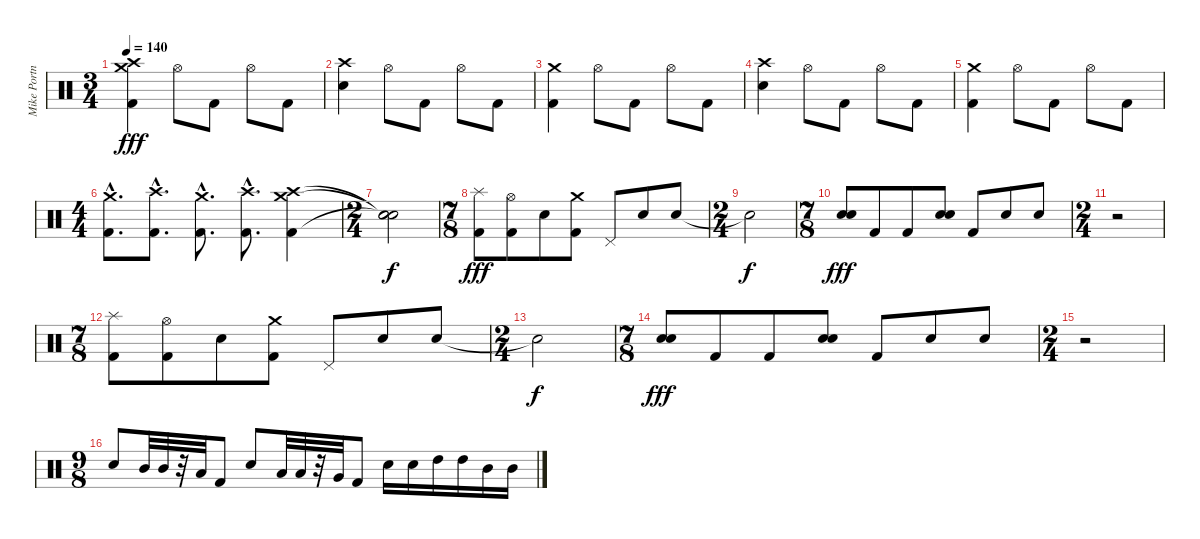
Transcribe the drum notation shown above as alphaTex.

\track ("Mike Portnoy" "Mike Portn") {instrument percussion}
\staff {score}
\articulation defaults
\ts (3 4)
\tempo 140
\clef neutral
\ks c
("Crash medium (hit)" "Crash high (hit)" "Kick (hit) 2").4{dy fff} "Hi-Hat (open)".8 "Kick (hit) 2".8 "Hi-Hat (open)".8 "Kick (hit) 2".8 |
("Crash high (hit)" "Snare (hit) 2").4 "Hi-Hat (open)".8 "Kick (hit) 2".8 "Hi-Hat (open)".8 "Kick (hit) 2".8 |
("Crash medium (hit)" "Kick (hit) 2").4 "Hi-Hat (open)".8 "Kick (hit) 2".8 "Hi-Hat (open)".8 "Kick (hit) 2".8 |
("Crash high (hit)" "Snare (hit) 2").4 "Hi-Hat (open)".8 "Kick (hit) 2".8 "Hi-Hat (open)".8 "Kick (hit) 2".8 |
("Crash medium (hit)" "Kick (hit) 2").4 "Hi-Hat (open)".8 "Kick (hit) 2".8 "Hi-Hat (open)".8 "Kick (hit) 2".8 |
\ts (4 4)
("Crash medium (hit)"{hac} "Kick (hit) 2"{hac}).8{d} ("Crash high (hit)"{hac} "Kick (hit) 2"{hac}).8{d} ("Crash medium (hit)"{hac} "Kick (hit) 2"{hac}).8{d} ("Crash high (hit)"{hac} "Kick (hit) 2"{hac}).8{d} ("Crash high (hit)" "Crash medium (hit)" "Kick (hit) 2").4 |
\ts (2 4)
("Snare (hit)"{t} "Snare (hit)"{t} "Snare (hit)"{t}).2{dy f} |
\ts (7 8)
("Splash (hit)" "Kick (hit) 2").8{dy fff} ("Hi-Hat (open)" "Kick (hit) 2").8 "Snare (hit) 2".8 ("Crash medium (hit)" "Kick (hit) 2").8 "Pedal Hi-Hat (hit)".8 "Snare (hit) 2".8 "Snare (hit) 2".8 |
\ts (2 4)
"Snare (hit)"{t}.2{dy f} |
\ts (7 8)
("Snare (hit) 2" "Snare (hit) 2").8{dy fff} "Kick (hit) 2".8 "Kick (hit) 2".8 ("Snare (hit) 2" "Snare (hit) 2").8 "Kick (hit) 2".8 "Snare (hit) 2".8 "Snare (hit) 2".8 |
\ts (2 4)
r.2 |
\ts (7 8)
("Splash (hit)" "Kick (hit) 2").8 ("Hi-Hat (open)" "Kick (hit) 2").8 "Snare (hit) 2".8 ("Crash medium (hit)" "Kick (hit) 2").8 "Pedal Hi-Hat (hit)".8 "Snare (hit) 2".8 "Snare (hit) 2".8 |
\ts (2 4)
"Snare (hit)"{t}.2{dy f} |
\ts (7 8)
("Snare (hit) 2" "Snare (hit) 2").8{dy fff} "Kick (hit) 2".8 "Kick (hit) 2".8 ("Snare (hit) 2" "Snare (hit) 2").8 "Kick (hit) 2".8 "Snare (hit) 2".8 "Snare (hit) 2".8 |
\ts (2 4)
r.2 |
\ts (9 8)
"Snare (hit) 2".8 "Mid Tom (hit)".32 "Mid Tom (hit)".32 r.32 "Low Tom (hit)".32 "Kick (hit) 2".8 "Snare (hit) 2".8 "Low Tom (hit)".32 "Low Tom (hit)".32 r.32 "Very Low Tom (hit)".32 "Kick (hit) 2".8 "Snare (hit) 2".16 "Snare (hit) 2".16 "High Tom (hit)".16 "High Tom (hit)".16 "Mid Tom (hit)".16 "Mid Tom (hit)".16
